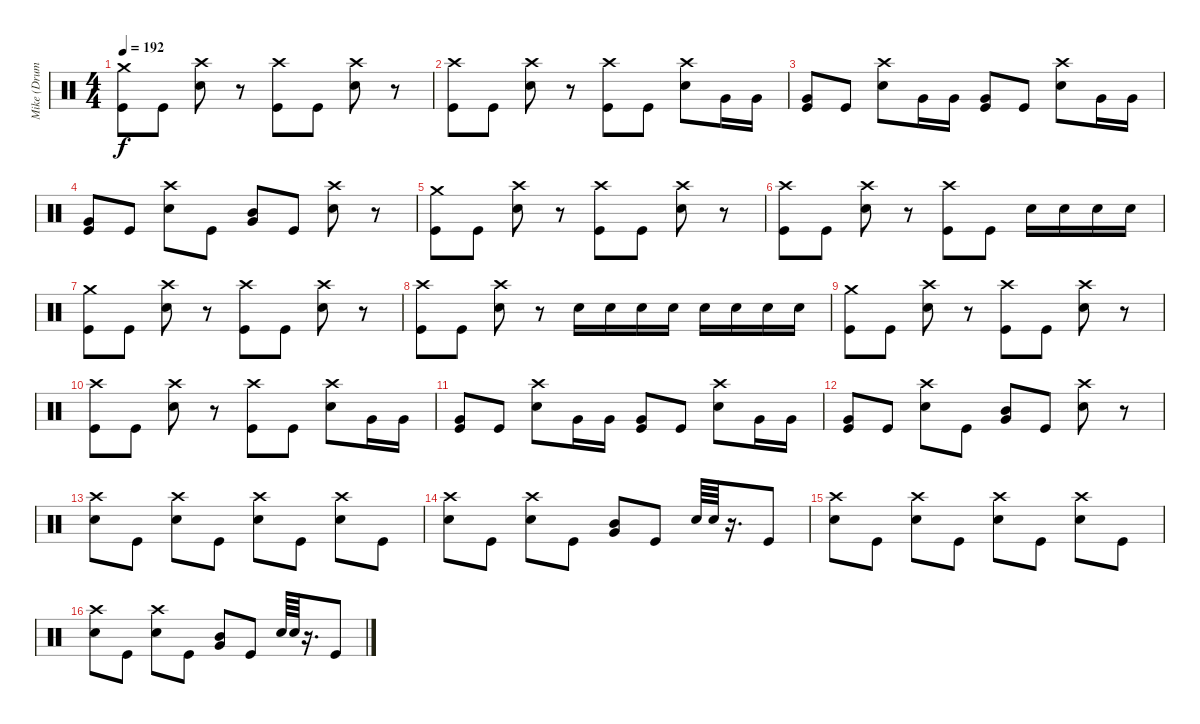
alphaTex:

\track ("Mike (Drums)" "Mike (Drum") {instrument percussion}
\staff {score}
\articulation defaults
\ts (4 4)
\tempo 192
\clef neutral
\ks c
("Crash medium (hit)" "Kick (hit)").8{dy f} "Kick (hit)".8 ("Crash high (hit)" "Snare (hit) 2").8 r.8 ("Crash high (hit)" "Kick (hit)").8 "Kick (hit)".8 ("Crash high (hit)" "Snare (hit) 2").8 r.8 |
("Crash high (hit)" "Kick (hit)").8 "Kick (hit)".8 ("Crash high (hit)" "Snare (hit) 2").8 r.8 ("Crash high (hit)" "Kick (hit)").8 "Kick (hit)".8 ("Crash high (hit)" "Snare (hit) 2").8 "Very Low Tom (hit)".16 "Very Low Tom (hit)".16 |
("Very Low Tom (hit)" "Kick (hit)").8 "Kick (hit)".8 ("Crash high (hit)" "Snare (hit) 2").8 "Very Low Tom (hit)".16 "Very Low Tom (hit)".16 ("Very Low Tom (hit)" "Kick (hit)").8 "Kick (hit)".8 ("Crash high (hit)" "Snare (hit) 2").8 "Very Low Tom (hit)".16 "Very Low Tom (hit)".16 |
("Very Low Tom (hit)" "Kick (hit)").8 "Kick (hit)".8 ("Crash high (hit)" "Snare (hit) 2").8 "Kick (hit)".8 ("Mid Tom (hit)" "Very Low Tom (hit)").8 "Kick (hit)".8 ("Crash high (hit)" "Snare (hit) 2").8 r.8 |
("Crash medium (hit)" "Kick (hit)").8 "Kick (hit)".8 ("Crash high (hit)" "Snare (hit) 2").8 r.8 ("Crash high (hit)" "Kick (hit)").8 "Kick (hit)".8 ("Crash high (hit)" "Snare (hit) 2").8 r.8 |
("Crash high (hit)" "Kick (hit)").8 "Kick (hit)".8 ("Crash high (hit)" "Snare (hit) 2").8 r.8 ("Crash high (hit)" "Kick (hit)").8 "Kick (hit)".8 "Snare (hit) 2".16 "Snare (hit) 2".16 "Snare (hit) 2".16 "Snare (hit) 2".16 |
("Crash medium (hit)" "Kick (hit)").8 "Kick (hit)".8 ("Crash high (hit)" "Snare (hit) 2").8 r.8 ("Crash high (hit)" "Kick (hit)").8 "Kick (hit)".8 ("Crash high (hit)" "Snare (hit) 2").8 r.8 |
("Crash high (hit)" "Kick (hit)").8 "Kick (hit)".8 ("Crash high (hit)" "Snare (hit) 2").8 r.8 "Snare (hit) 2".16 "Snare (hit) 2".16 "Snare (hit) 2".16 "Snare (hit) 2".16 "Snare (hit) 2".16 "Snare (hit) 2".16 "Snare (hit) 2".16 "Snare (hit) 2".16 |
("Crash medium (hit)" "Kick (hit)").8 "Kick (hit)".8 ("Crash high (hit)" "Snare (hit) 2").8 r.8 ("Crash high (hit)" "Kick (hit)").8 "Kick (hit)".8 ("Crash high (hit)" "Snare (hit) 2").8 r.8 |
("Crash high (hit)" "Kick (hit)").8 "Kick (hit)".8 ("Crash high (hit)" "Snare (hit) 2").8 r.8 ("Crash high (hit)" "Kick (hit)").8 "Kick (hit)".8 ("Crash high (hit)" "Snare (hit) 2").8 "Very Low Tom (hit)".16 "Very Low Tom (hit)".16 |
("Very Low Tom (hit)" "Kick (hit)").8 "Kick (hit)".8 ("Crash high (hit)" "Snare (hit) 2").8 "Very Low Tom (hit)".16 "Very Low Tom (hit)".16 ("Very Low Tom (hit)" "Kick (hit)").8 "Kick (hit)".8 ("Crash high (hit)" "Snare (hit) 2").8 "Very Low Tom (hit)".16 "Very Low Tom (hit)".16 |
("Very Low Tom (hit)" "Kick (hit)").8 "Kick (hit)".8 ("Crash high (hit)" "Snare (hit) 2").8 "Kick (hit)".8 ("Mid Tom (hit)" "Very Low Tom (hit)").8 "Kick (hit)".8 ("Crash high (hit)" "Snare (hit) 2").8 r.8 |
("Crash high (hit)" "Snare (hit) 2").8 "Kick (hit)".8 ("Crash high (hit)" "Snare (hit) 2").8 "Kick (hit)".8 ("Crash high (hit)" "Snare (hit) 2").8 "Kick (hit)".8 ("Crash high (hit)" "Snare (hit) 2").8 "Kick (hit)".8 |
("Crash high (hit)" "Snare (hit) 2").8 "Kick (hit)".8 ("Crash high (hit)" "Snare (hit) 2").8 "Kick (hit)".8 ("Mid Tom (hit)" "Very Low Tom (hit)").8 "Kick (hit)".8 "Snare (hit) 2".64 "Snare (hit) 2".64 r.16{d} "Kick (hit)".8 |
("Crash high (hit)" "Snare (hit) 2").8 "Kick (hit)".8 ("Crash high (hit)" "Snare (hit) 2").8 "Kick (hit)".8 ("Crash high (hit)" "Snare (hit) 2").8 "Kick (hit)".8 ("Crash high (hit)" "Snare (hit) 2").8 "Kick (hit)".8 |
("Crash high (hit)" "Snare (hit) 2").8 "Kick (hit)".8 ("Crash high (hit)" "Snare (hit) 2").8 "Kick (hit)".8 ("Mid Tom (hit)" "Very Low Tom (hit)").8 "Kick (hit)".8 "Snare (hit) 2".64 "Snare (hit) 2".64 r.16{d} "Kick (hit)".8
